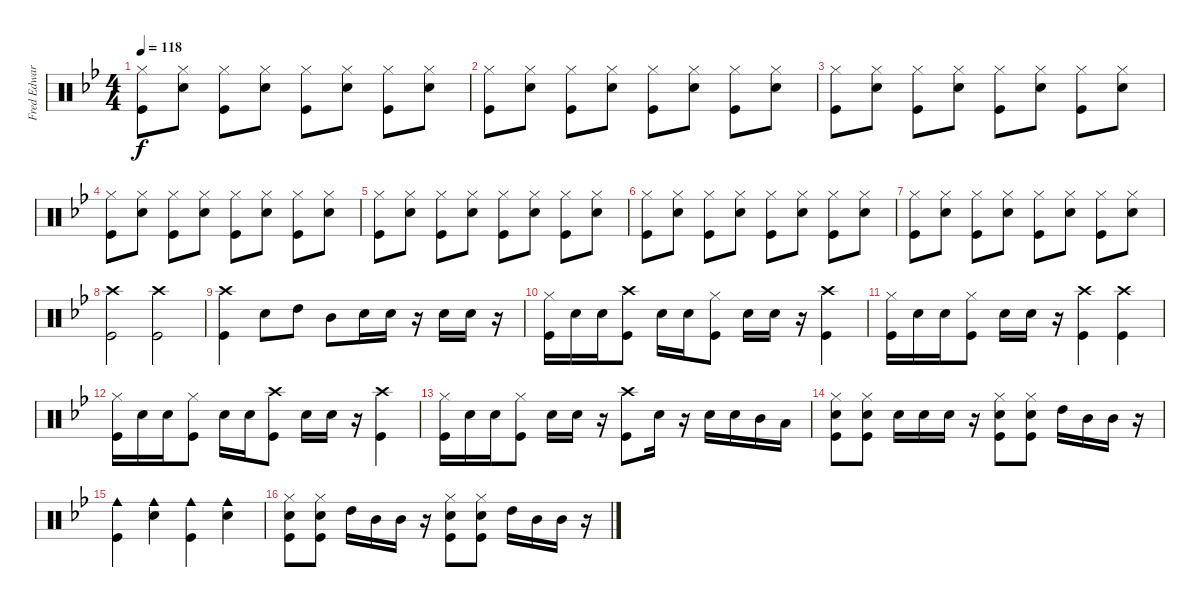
\track ("Fred Edwards Drums" "Fred Edwar") {instrument percussion}
\staff {score}
\articulation defaults
\ts (4 4)
\tempo 118
\clef neutral
\ks gminor
("Hi-Hat (closed)" "Kick (hit)").8{dy f} ("Hi-Hat (closed)" "Snare (hit) 2").8 ("Hi-Hat (closed)" "Kick (hit)").8 ("Hi-Hat (closed)" "Snare (hit) 2").8 ("Hi-Hat (closed)" "Kick (hit)").8 ("Hi-Hat (closed)" "Snare (hit) 2").8 ("Hi-Hat (closed)" "Kick (hit)").8 ("Hi-Hat (closed)" "Snare (hit) 2").8 |
("Hi-Hat (closed)" "Kick (hit)").8 ("Hi-Hat (closed)" "Snare (hit) 2").8 ("Hi-Hat (closed)" "Kick (hit)").8 ("Hi-Hat (closed)" "Snare (hit) 2").8 ("Hi-Hat (closed)" "Kick (hit)").8 ("Hi-Hat (closed)" "Snare (hit) 2").8 ("Hi-Hat (closed)" "Kick (hit)").8 ("Hi-Hat (closed)" "Snare (hit) 2").8 |
("Hi-Hat (closed)" "Kick (hit)").8 ("Hi-Hat (closed)" "Snare (hit) 2").8 ("Hi-Hat (closed)" "Kick (hit)").8 ("Hi-Hat (closed)" "Snare (hit) 2").8 ("Hi-Hat (closed)" "Kick (hit)").8 ("Hi-Hat (closed)" "Snare (hit) 2").8 ("Hi-Hat (closed)" "Kick (hit)").8 ("Hi-Hat (closed)" "Snare (hit) 2").8 |
("Hi-Hat (closed)" "Kick (hit)").8 ("Hi-Hat (closed)" "Snare (hit) 2").8 ("Hi-Hat (closed)" "Kick (hit)").8 ("Hi-Hat (closed)" "Snare (hit) 2").8 ("Hi-Hat (closed)" "Kick (hit)").8 ("Hi-Hat (closed)" "Snare (hit) 2").8 ("Hi-Hat (closed)" "Kick (hit)").8 ("Hi-Hat (closed)" "Snare (hit) 2").8 |
("Hi-Hat (closed)" "Kick (hit)").8 ("Hi-Hat (closed)" "Snare (hit) 2").8 ("Hi-Hat (closed)" "Kick (hit)").8 ("Hi-Hat (closed)" "Snare (hit) 2").8 ("Hi-Hat (closed)" "Kick (hit)").8 ("Hi-Hat (closed)" "Snare (hit) 2").8 ("Hi-Hat (closed)" "Kick (hit)").8 ("Hi-Hat (closed)" "Snare (hit) 2").8 |
("Hi-Hat (closed)" "Kick (hit)").8 ("Hi-Hat (closed)" "Snare (hit) 2").8 ("Hi-Hat (closed)" "Kick (hit)").8 ("Hi-Hat (closed)" "Snare (hit) 2").8 ("Hi-Hat (closed)" "Kick (hit)").8 ("Hi-Hat (closed)" "Snare (hit) 2").8 ("Hi-Hat (closed)" "Kick (hit)").8 ("Hi-Hat (closed)" "Snare (hit) 2").8 |
("Hi-Hat (closed)" "Kick (hit)").8 ("Hi-Hat (closed)" "Snare (hit) 2").8 ("Hi-Hat (closed)" "Kick (hit)").8 ("Hi-Hat (closed)" "Snare (hit) 2").8 ("Hi-Hat (closed)" "Kick (hit)").8 ("Hi-Hat (closed)" "Snare (hit) 2").8 ("Hi-Hat (closed)" "Kick (hit)").8 ("Hi-Hat (closed)" "Snare (hit) 2").8 |
("Crash high (hit)" "Kick (hit)").2 ("Crash high (hit)" "Kick (hit)").2 |
("Crash high (hit)" "Kick (hit)").4 "Snare (hit) 2".8 "High Tom (hit)".8 "Mid Tom (hit)".8 "Snare (hit) 2".16 "Snare (hit) 2".16 r.16 "Snare (hit) 2".16 "Snare (hit) 2".16 r.16 |
("Hi-Hat (closed)" "Kick (hit)").16 "Snare (hit) 2".16 "Snare (hit) 2".16 ("Crash high (hit)" "Kick (hit)").8 "Snare (hit) 2".16 "Snare (hit) 2".16 ("Hi-Hat (closed)" "Kick (hit)").8 "Snare (hit) 2".16 "Snare (hit) 2".16 r.16 ("Crash high (hit)" "Kick (hit)").4 |
("Hi-Hat (closed)" "Kick (hit)").16 "Snare (hit) 2".16 "Snare (hit) 2".16 ("Hi-Hat (closed)" "Kick (hit)").8 "Snare (hit) 2".16 "Snare (hit) 2".16 r.16 ("Crash high (hit)" "Kick (hit)").4 ("Crash high (hit)" "Kick (hit)").4 |
("Hi-Hat (closed)" "Kick (hit)").16 "Snare (hit) 2".16 "Snare (hit) 2".16 ("Hi-Hat (closed)" "Kick (hit)").8 "Snare (hit) 2".16 "Snare (hit) 2".16 ("Crash high (hit)" "Kick (hit)").8 "Snare (hit) 2".16 "Snare (hit) 2".16 r.16 ("Crash high (hit)" "Kick (hit)").4 |
("Hi-Hat (closed)" "Kick (hit)").16 "Snare (hit) 2".16 "Snare (hit) 2".16 ("Hi-Hat (closed)" "Kick (hit)").8 "Snare (hit) 2".16 "Snare (hit) 2".16 r.16 ("Crash high (hit)" "Kick (hit)").8 "Snare (hit) 2".16 r.16 "Snare (hit) 2".16 "Snare (hit) 2".16 "Mid Tom (hit)".16 "Low Tom (hit)".16 |
("Hi-Hat (closed)" "Snare (hit) 2" "Kick (hit)").8 ("Hi-Hat (closed)" "Snare (hit) 2" "Kick (hit)").8 "Snare (hit) 2".16 "Snare (hit) 2".16 "Snare (hit) 2".16 r.16 ("Hi-Hat (closed)" "Snare (hit) 2" "Kick (hit)").8 ("Hi-Hat (closed)" "Snare (hit) 2" "Kick (hit)").8 "High Tom (hit)".16 "Mid Tom (hit)".16 "Mid Tom (hit)".16 r.16 |
("Cowbell medium (hit)" "Kick (hit)").4 ("Cowbell medium (hit)" "Snare (hit) 2").4 ("Cowbell medium (hit)" "Kick (hit)").4 ("Cowbell medium (hit)" "Snare (hit) 2").4 |
("Hi-Hat (closed)" "Snare (hit) 2" "Kick (hit)").8 ("Hi-Hat (closed)" "Snare (hit) 2" "Kick (hit)").8 "High Tom (hit)".16 "Mid Tom (hit)".16 "Mid Tom (hit)".16 r.16 ("Hi-Hat (closed)" "Snare (hit) 2" "Kick (hit)").8 ("Hi-Hat (closed)" "Snare (hit) 2" "Kick (hit)").8 "High Tom (hit)".16 "Mid Tom (hit)".16 "Mid Tom (hit)".16 r.16
